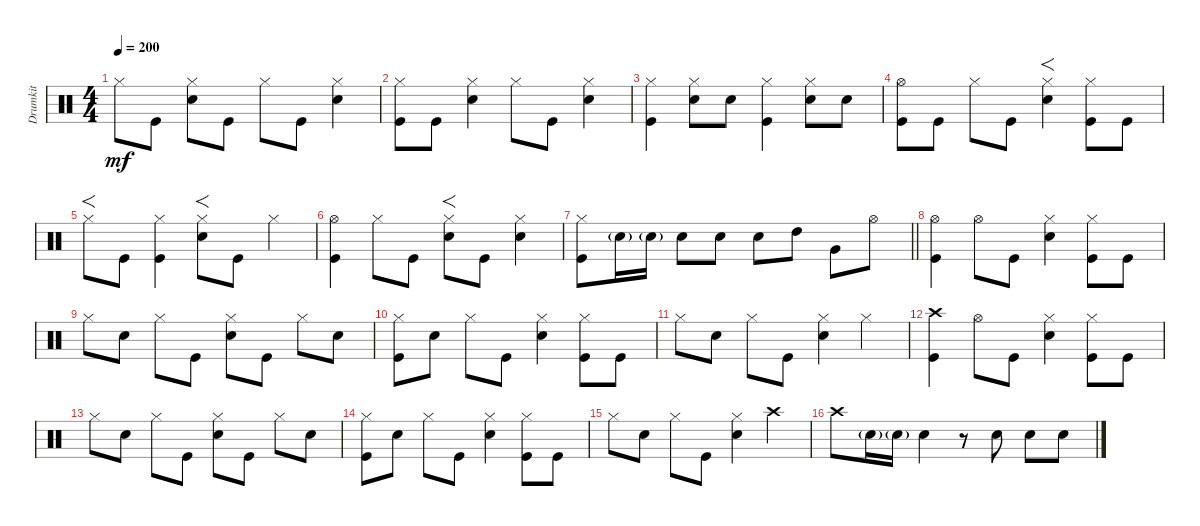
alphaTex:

\track ("Drumkit" "Drumkit") {instrument percussion}
\staff {score}
\articulation defaults
\ts (4 4)
\tempo 200
\clef neutral
\ks c "Hi-Hat (closed)".8{dy mf} "Kick (hit)".8
("Hi-Hat (closed)" "Snare (hit) 2").8 "Kick (hit)".8 "Hi-Hat (closed)".8 "Kick (hit)".8 ("Hi-Hat (closed)" "Snare (hit) 2").4 |
("Hi-Hat (closed)" "Kick (hit)").8 "Kick (hit)".8 ("Snare (hit) 2" "Hi-Hat (closed)").4 "Hi-Hat (closed)".8 "Kick (hit)".8 ("Hi-Hat (closed)" "Snare (hit) 2").4 |
("Kick (hit)" "Hi-Hat (closed)").4 ("Snare (hit) 2" "Hi-Hat (closed)").8 "Snare (hit) 2".8 ("Hi-Hat (closed)" "Kick (hit)").4 ("Hi-Hat (closed)" "Snare (hit) 2").8 "Snare (hit) 2".8 |
("Hi-Hat (open)" "Kick (hit)").8 "Kick (hit)".8 "Hi-Hat (closed)".8 "Kick (hit)".8 ("Snare (hit) 2" "Hi-Hat (closed)").4{f} ("Hi-Hat (closed)" "Kick (hit)").8 "Kick (hit)".8 |
"Hi-Hat (closed)".8{f} "Kick (hit)".8 ("Hi-Hat (closed)" "Kick (hit)").4 ("Hi-Hat (closed)" "Snare (hit) 2").8{f} "Kick (hit)".8 "Hi-Hat (closed)".4 |
("Hi-Hat (open)" "Kick (hit)").4 "Hi-Hat (closed)".8 "Kick (hit)".8 ("Hi-Hat (closed)" "Snare (hit) 2").8{f} "Kick (hit)".8 ("Hi-Hat (closed)" "Snare (hit) 2").4 |
\barLineRight lightlight
("Hi-Hat (closed)" "Kick (hit)").8 "Snare (hit) 2"{g}.16 "Snare (hit) 2"{g}.16 "Snare (hit) 2".8 "Snare (hit) 2".8 "Snare (hit) 2".8 "High Tom (hit)".8 "Very Low Tom (hit)".8 "Hi-Hat (open)".8 |
("Kick (hit)" "Hi-Hat (open)").4 "Hi-Hat (open)".8 "Kick (hit)".8 ("Snare (hit) 2" "Hi-Hat (closed)").4 ("Hi-Hat (closed)" "Kick (hit)").8 "Kick (hit)".8 |
"Hi-Hat (closed)".8 "Snare (hit) 2".8 "Hi-Hat (closed)".8 "Kick (hit)".8 ("Hi-Hat (closed)" "Snare (hit) 2").8 "Kick (hit)".8 "Hi-Hat (closed)".8 "Snare (hit) 2".8 |
("Kick (hit)" "Hi-Hat (closed)").8 "Snare (hit) 2".8 "Hi-Hat (closed)".8 "Kick (hit)".8 ("Hi-Hat (closed)" "Snare (hit) 2").4 ("Kick (hit)" "Hi-Hat (closed)").8 "Kick (hit)".8 |
"Hi-Hat (closed)".8 "Snare (hit) 2".8 "Hi-Hat (closed)".8 "Kick (hit)".8 ("Hi-Hat (closed)" "Snare (hit) 2").4 "Hi-Hat (closed)".4 |
("Kick (hit)" "Crash high (hit)").4 "Hi-Hat (open)".8 "Kick (hit)".8 ("Snare (hit) 2" "Hi-Hat (closed)").4 ("Hi-Hat (closed)" "Kick (hit)").8 "Kick (hit)".8 |
"Hi-Hat (closed)".8 "Snare (hit) 2".8 "Hi-Hat (closed)".8 "Kick (hit)".8 ("Hi-Hat (closed)" "Snare (hit) 2").8 "Kick (hit)".8 "Hi-Hat (closed)".8 "Snare (hit) 2".8 |
("Kick (hit)" "Hi-Hat (closed)").8 "Snare (hit) 2".8 "Hi-Hat (closed)".8 "Kick (hit)".8 ("Hi-Hat (closed)" "Snare (hit) 2").4 ("Kick (hit)" "Hi-Hat (closed)").8 "Kick (hit)".8 |
"Hi-Hat (closed)".8 "Snare (hit) 2".8 "Hi-Hat (closed)".8 "Kick (hit)".8 ("Hi-Hat (closed)" "Snare (hit) 2").4 "Crash high (hit)".4 |
"Crash high (hit)".8 "Snare (hit) 2"{g}.16 "Snare (hit) 2"{g}.16 "Snare (hit) 2".4 r.8 "Snare (hit) 2".8 "Snare (hit) 2".8 "Snare (hit) 2".8
